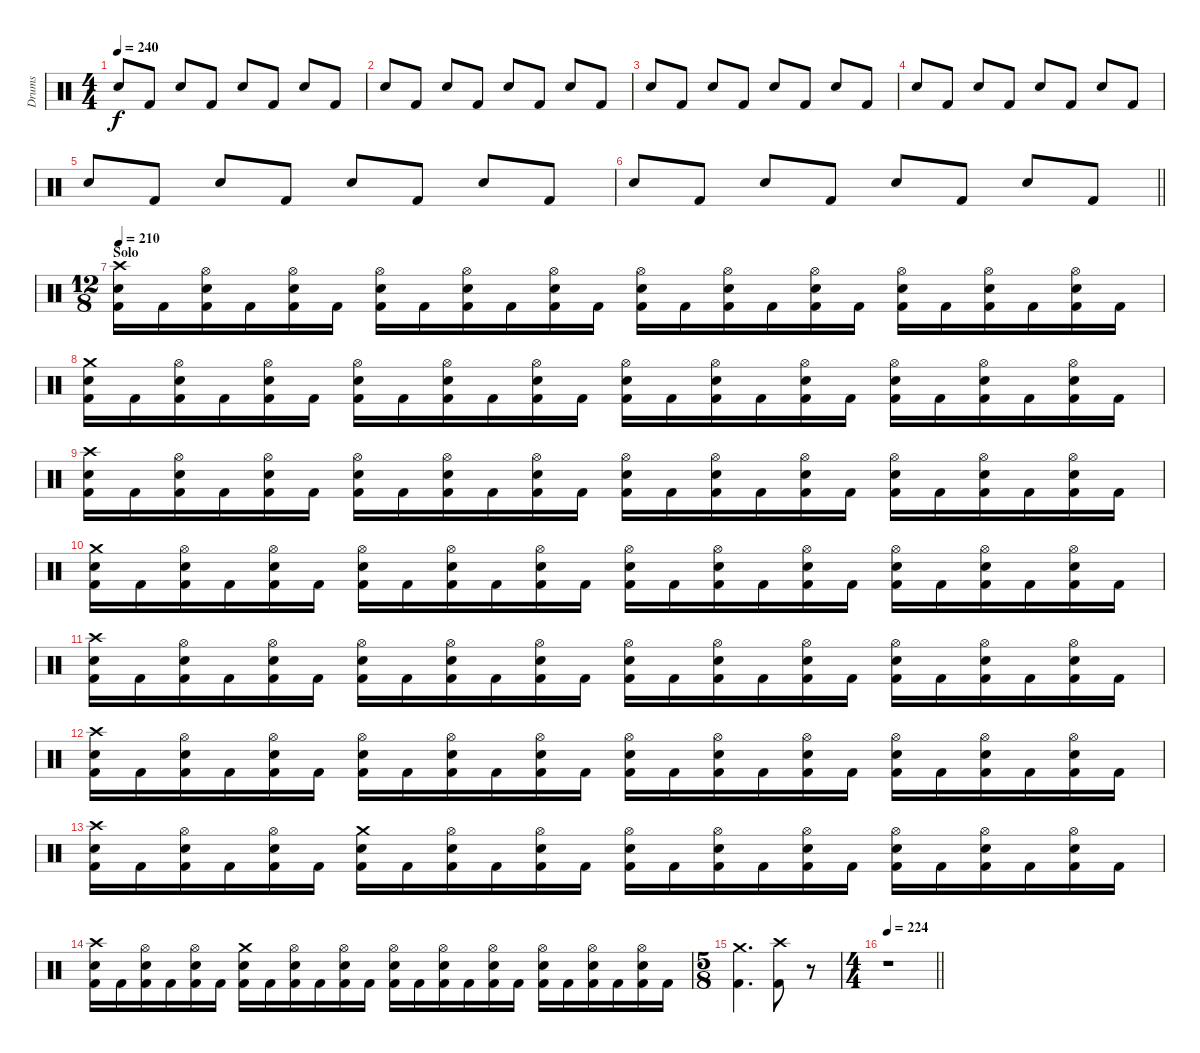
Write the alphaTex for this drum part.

\track ("Drums" "Drums") {instrument percussion}
\staff {score}
\articulation defaults
\ts (4 4)
\tempo 240
\clef neutral
\ks c "Electric Snare (hit)".8{dy f} "Kick (hit) 2".8 "Electric Snare (hit)".8 "Kick (hit) 2".8 "Electric Snare (hit)".8 "Kick (hit) 2".8 "Electric Snare (hit)".8 "Kick (hit) 2".8
|
"Electric Snare (hit)".8 "Kick (hit) 2".8 "Electric Snare (hit)".8 "Kick (hit) 2".8 "Electric Snare (hit)".8 "Kick (hit) 2".8 "Electric Snare (hit)".8 "Kick (hit) 2".8 |
"Electric Snare (hit)".8 "Kick (hit) 2".8 "Electric Snare (hit)".8 "Kick (hit) 2".8 "Electric Snare (hit)".8 "Kick (hit) 2".8 "Electric Snare (hit)".8 "Kick (hit) 2".8 |
"Electric Snare (hit)".8 "Kick (hit) 2".8 "Electric Snare (hit)".8 "Kick (hit) 2".8 "Electric Snare (hit)".8 "Kick (hit) 2".8 "Electric Snare (hit)".8 "Kick (hit) 2".8 |
"Electric Snare (hit)".8 "Kick (hit) 2".8 "Electric Snare (hit)".8 "Kick (hit) 2".8 "Electric Snare (hit)".8 "Kick (hit) 2".8 "Electric Snare (hit)".8 "Kick (hit) 2".8 |
\barLineRight lightlight "Electric Snare (hit)".8 "Kick (hit) 2".8 "Electric Snare (hit)".8 "Kick (hit) 2".8 "Electric Snare (hit)".8 "Kick (hit) 2".8 "Electric Snare (hit)".8 "Kick (hit) 2".8
|
\ts (12 8)
\section ("" "Solo")
\tempo 210
("Crash high (hit)" "Electric Snare (hit)" "Kick (hit) 2").16 "Kick (hit) 2".16 ("Hi-Hat (open)" "Electric Snare (hit)" "Kick (hit) 2").16 "Kick (hit) 2".16 ("Hi-Hat (open)" "Electric Snare (hit)" "Kick (hit) 2").16 "Kick (hit) 2".16 ("Hi-Hat (open)" "Electric Snare (hit)" "Kick (hit) 2").16 "Kick (hit) 2".16 ("Hi-Hat (open)" "Electric Snare (hit)" "Kick (hit) 2").16 "Kick (hit) 2".16 ("Hi-Hat (open)" "Electric Snare (hit)" "Kick (hit) 2").16 "Kick (hit) 2".16 ("Hi-Hat (open)" "Electric Snare (hit)" "Kick (hit) 2").16 "Kick (hit) 2".16 ("Hi-Hat (open)" "Electric Snare (hit)" "Kick (hit) 2").16 "Kick (hit) 2".16 ("Hi-Hat (open)" "Electric Snare (hit)" "Kick (hit) 2").16 "Kick (hit) 2".16 ("Hi-Hat (open)" "Electric Snare (hit)" "Kick (hit) 2").16 "Kick (hit) 2".16 ("Hi-Hat (open)" "Electric Snare (hit)" "Kick (hit) 2").16 "Kick (hit) 2".16 ("Hi-Hat (open)" "Electric Snare (hit)" "Kick (hit) 2").16 "Kick (hit) 2".16 |
("Crash medium (hit)" "Electric Snare (hit)" "Kick (hit) 2").16 "Kick (hit) 2".16 ("Hi-Hat (open)" "Electric Snare (hit)" "Kick (hit) 2").16 "Kick (hit) 2".16 ("Hi-Hat (open)" "Electric Snare (hit)" "Kick (hit) 2").16 "Kick (hit) 2".16 ("Hi-Hat (open)" "Electric Snare (hit)" "Kick (hit) 2").16 "Kick (hit) 2".16 ("Hi-Hat (open)" "Electric Snare (hit)" "Kick (hit) 2").16 "Kick (hit) 2".16 ("Hi-Hat (open)" "Electric Snare (hit)" "Kick (hit) 2").16 "Kick (hit) 2".16 ("Hi-Hat (open)" "Electric Snare (hit)" "Kick (hit) 2").16 "Kick (hit) 2".16 ("Hi-Hat (open)" "Electric Snare (hit)" "Kick (hit) 2").16 "Kick (hit) 2".16 ("Hi-Hat (open)" "Electric Snare (hit)" "Kick (hit) 2").16 "Kick (hit) 2".16 ("Hi-Hat (open)" "Electric Snare (hit)" "Kick (hit) 2").16 "Kick (hit) 2".16 ("Hi-Hat (open)" "Electric Snare (hit)" "Kick (hit) 2").16 "Kick (hit) 2".16 ("Hi-Hat (open)" "Electric Snare (hit)" "Kick (hit) 2").16 "Kick (hit) 2".16 |
("Crash high (hit)" "Electric Snare (hit)" "Kick (hit) 2").16 "Kick (hit) 2".16 ("Hi-Hat (open)" "Electric Snare (hit)" "Kick (hit) 2").16 "Kick (hit) 2".16 ("Hi-Hat (open)" "Electric Snare (hit)" "Kick (hit) 2").16 "Kick (hit) 2".16 ("Hi-Hat (open)" "Electric Snare (hit)" "Kick (hit) 2").16 "Kick (hit) 2".16 ("Hi-Hat (open)" "Electric Snare (hit)" "Kick (hit) 2").16 "Kick (hit) 2".16 ("Hi-Hat (open)" "Electric Snare (hit)" "Kick (hit) 2").16 "Kick (hit) 2".16 ("Hi-Hat (open)" "Electric Snare (hit)" "Kick (hit) 2").16 "Kick (hit) 2".16 ("Hi-Hat (open)" "Electric Snare (hit)" "Kick (hit) 2").16 "Kick (hit) 2".16 ("Hi-Hat (open)" "Electric Snare (hit)" "Kick (hit) 2").16 "Kick (hit) 2".16 ("Hi-Hat (open)" "Electric Snare (hit)" "Kick (hit) 2").16 "Kick (hit) 2".16 ("Hi-Hat (open)" "Electric Snare (hit)" "Kick (hit) 2").16 "Kick (hit) 2".16 ("Hi-Hat (open)" "Electric Snare (hit)" "Kick (hit) 2").16 "Kick (hit) 2".16 |
("Crash medium (hit)" "Electric Snare (hit)" "Kick (hit) 2").16 "Kick (hit) 2".16 ("Hi-Hat (open)" "Electric Snare (hit)" "Kick (hit) 2").16 "Kick (hit) 2".16 ("Hi-Hat (open)" "Electric Snare (hit)" "Kick (hit) 2").16 "Kick (hit) 2".16 ("Hi-Hat (open)" "Electric Snare (hit)" "Kick (hit) 2").16 "Kick (hit) 2".16 ("Hi-Hat (open)" "Electric Snare (hit)" "Kick (hit) 2").16 "Kick (hit) 2".16 ("Hi-Hat (open)" "Electric Snare (hit)" "Kick (hit) 2").16 "Kick (hit) 2".16 ("Hi-Hat (open)" "Electric Snare (hit)" "Kick (hit) 2").16 "Kick (hit) 2".16 ("Hi-Hat (open)" "Electric Snare (hit)" "Kick (hit) 2").16 "Kick (hit) 2".16 ("Hi-Hat (open)" "Electric Snare (hit)" "Kick (hit) 2").16 "Kick (hit) 2".16 ("Hi-Hat (open)" "Electric Snare (hit)" "Kick (hit) 2").16 "Kick (hit) 2".16 ("Hi-Hat (open)" "Electric Snare (hit)" "Kick (hit) 2").16 "Kick (hit) 2".16 ("Hi-Hat (open)" "Electric Snare (hit)" "Kick (hit) 2").16 "Kick (hit) 2".16 |
("Crash high (hit)" "Electric Snare (hit)" "Kick (hit) 2").16 "Kick (hit) 2".16 ("Hi-Hat (open)" "Electric Snare (hit)" "Kick (hit) 2").16 "Kick (hit) 2".16 ("Hi-Hat (open)" "Electric Snare (hit)" "Kick (hit) 2").16 "Kick (hit) 2".16 ("Hi-Hat (open)" "Electric Snare (hit)" "Kick (hit) 2").16 "Kick (hit) 2".16 ("Hi-Hat (open)" "Electric Snare (hit)" "Kick (hit) 2").16 "Kick (hit) 2".16 ("Hi-Hat (open)" "Electric Snare (hit)" "Kick (hit) 2").16 "Kick (hit) 2".16 ("Hi-Hat (open)" "Electric Snare (hit)" "Kick (hit) 2").16 "Kick (hit) 2".16 ("Hi-Hat (open)" "Electric Snare (hit)" "Kick (hit) 2").16 "Kick (hit) 2".16 ("Hi-Hat (open)" "Electric Snare (hit)" "Kick (hit) 2").16 "Kick (hit) 2".16 ("Hi-Hat (open)" "Electric Snare (hit)" "Kick (hit) 2").16 "Kick (hit) 2".16 ("Hi-Hat (open)" "Electric Snare (hit)" "Kick (hit) 2").16 "Kick (hit) 2".16 ("Hi-Hat (open)" "Electric Snare (hit)" "Kick (hit) 2").16 "Kick (hit) 2".16 |
("Crash high (hit)" "Electric Snare (hit)" "Kick (hit) 2").16 "Kick (hit) 2".16 ("Hi-Hat (open)" "Electric Snare (hit)" "Kick (hit) 2").16 "Kick (hit) 2".16 ("Hi-Hat (open)" "Electric Snare (hit)" "Kick (hit) 2").16 "Kick (hit) 2".16 ("Hi-Hat (open)" "Electric Snare (hit)" "Kick (hit) 2").16 "Kick (hit) 2".16 ("Hi-Hat (open)" "Electric Snare (hit)" "Kick (hit) 2").16 "Kick (hit) 2".16 ("Hi-Hat (open)" "Electric Snare (hit)" "Kick (hit) 2").16 "Kick (hit) 2".16 ("Hi-Hat (open)" "Electric Snare (hit)" "Kick (hit) 2").16 "Kick (hit) 2".16 ("Hi-Hat (open)" "Electric Snare (hit)" "Kick (hit) 2").16 "Kick (hit) 2".16 ("Hi-Hat (open)" "Electric Snare (hit)" "Kick (hit) 2").16 "Kick (hit) 2".16 ("Hi-Hat (open)" "Electric Snare (hit)" "Kick (hit) 2").16 "Kick (hit) 2".16 ("Hi-Hat (open)" "Electric Snare (hit)" "Kick (hit) 2").16 "Kick (hit) 2".16 ("Hi-Hat (open)" "Electric Snare (hit)" "Kick (hit) 2").16 "Kick (hit) 2".16 |
("Crash high (hit)" "Electric Snare (hit)" "Kick (hit) 2").16 "Kick (hit) 2".16 ("Hi-Hat (open)" "Electric Snare (hit)" "Kick (hit) 2").16 "Kick (hit) 2".16 ("Hi-Hat (open)" "Electric Snare (hit)" "Kick (hit) 2").16 "Kick (hit) 2".16 ("Crash medium (hit)" "Electric Snare (hit)" "Kick (hit) 2").16 "Kick (hit) 2".16 ("Hi-Hat (open)" "Electric Snare (hit)" "Kick (hit) 2").16 "Kick (hit) 2".16 ("Hi-Hat (open)" "Electric Snare (hit)" "Kick (hit) 2").16 "Kick (hit) 2".16 ("Hi-Hat (open)" "Electric Snare (hit)" "Kick (hit) 2").16 "Kick (hit) 2".16 ("Hi-Hat (open)" "Electric Snare (hit)" "Kick (hit) 2").16 "Kick (hit) 2".16 ("Hi-Hat (open)" "Electric Snare (hit)" "Kick (hit) 2").16 "Kick (hit) 2".16 ("Hi-Hat (open)" "Electric Snare (hit)" "Kick (hit) 2").16 "Kick (hit) 2".16 ("Hi-Hat (open)" "Electric Snare (hit)" "Kick (hit) 2").16 "Kick (hit) 2".16 ("Hi-Hat (open)" "Electric Snare (hit)" "Kick (hit) 2").16 "Kick (hit) 2".16 |
("Crash high (hit)" "Electric Snare (hit)" "Kick (hit) 2").16 "Kick (hit) 2".16 ("Hi-Hat (open)" "Electric Snare (hit)" "Kick (hit) 2").16 "Kick (hit) 2".16 ("Hi-Hat (open)" "Electric Snare (hit)" "Kick (hit) 2").16 "Kick (hit) 2".16 ("Crash medium (hit)" "Electric Snare (hit)" "Kick (hit) 2").16 "Kick (hit) 2".16 ("Hi-Hat (open)" "Electric Snare (hit)" "Kick (hit) 2").16 "Kick (hit) 2".16 ("Hi-Hat (open)" "Electric Snare (hit)" "Kick (hit) 2").16 "Kick (hit) 2".16 ("Hi-Hat (open)" "Electric Snare (hit)" "Kick (hit) 2").16 "Kick (hit) 2".16 ("Hi-Hat (open)" "Electric Snare (hit)" "Kick (hit) 2").16 "Kick (hit) 2".16 ("Hi-Hat (open)" "Electric Snare (hit)" "Kick (hit) 2").16 "Kick (hit) 2".16 ("Hi-Hat (open)" "Electric Snare (hit)" "Kick (hit) 2").16 "Kick (hit) 2".16 ("Hi-Hat (open)" "Electric Snare (hit)" "Kick (hit) 2").16 "Kick (hit) 2".16 ("Hi-Hat (open)" "Electric Snare (hit)" "Kick (hit) 2").16 "Kick (hit) 2".16 |
\ts (5 8)
("Crash medium (hit)" "Kick (hit) 2").4{d} ("Crash high (hit)" "Kick (hit) 2").8 r.8 |
\ts (4 4)
\tempo 224
\barLineRight lightlight
r.1
